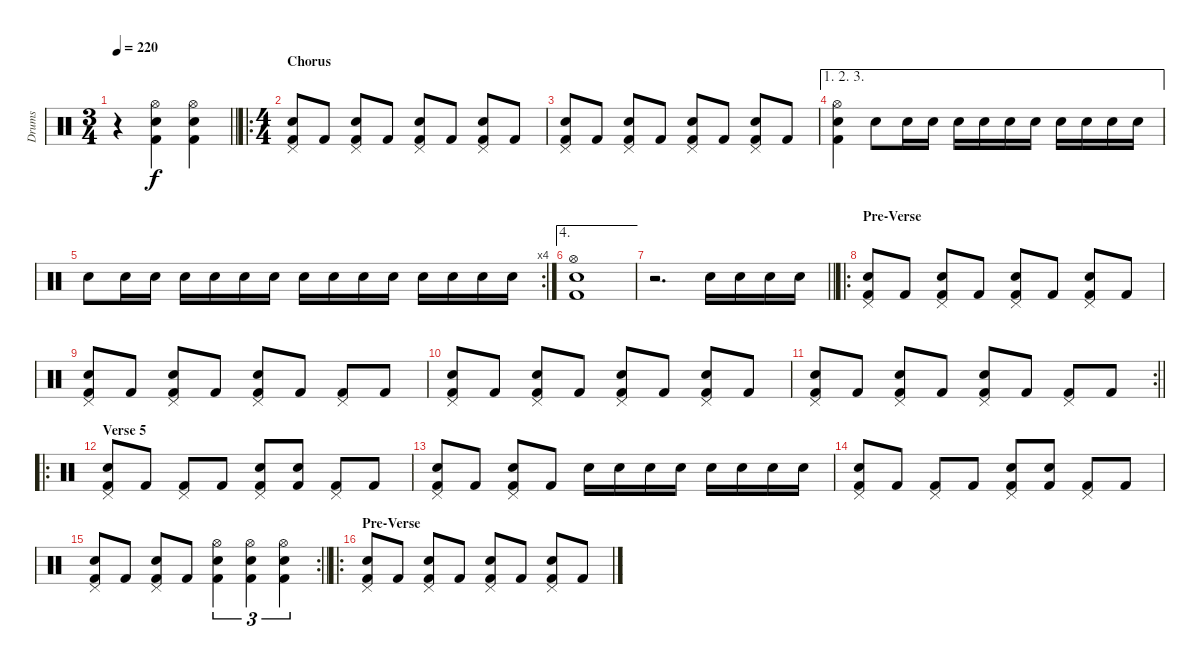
\track ("Drums" "Drums") {instrument percussion}
\staff {score}
\articulation defaults
\ts (3 4)
\tempo 220
\clef neutral
\barLineRight lightlight
\ks c
r.4{dy f} ("Hi-Hat (open)" "Snare (hit) 2" "Kick (hit) 2").4 ("Hi-Hat (open)" "Snare (hit) 2" "Kick (hit) 2").4 |
\ro
\ts (4 4)
\section ("" "Chorus")
("Pedal Hi-Hat (hit)" "Snare (hit) 2" "Kick (hit) 2").8 "Kick (hit) 2".8 ("Pedal Hi-Hat (hit)" "Snare (hit) 2" "Kick (hit) 2").8 "Kick (hit) 2".8 ("Pedal Hi-Hat (hit)" "Snare (hit) 2" "Kick (hit) 2").8 "Kick (hit) 2".8 ("Pedal Hi-Hat (hit)" "Snare (hit) 2" "Kick (hit) 2").8 "Kick (hit) 2".8 |
("Pedal Hi-Hat (hit)" "Snare (hit) 2" "Kick (hit) 2").8 "Kick (hit) 2".8 ("Pedal Hi-Hat (hit)" "Snare (hit) 2" "Kick (hit) 2").8 "Kick (hit) 2".8 ("Pedal Hi-Hat (hit)" "Snare (hit) 2" "Kick (hit) 2").8 "Kick (hit) 2".8 ("Pedal Hi-Hat (hit)" "Snare (hit) 2" "Kick (hit) 2").8 "Kick (hit) 2".8 |
\ae (1 2 3)
("Hi-Hat (open)" "Snare (hit) 2" "Kick (hit) 2").4 "Snare (hit) 2".8 "Snare (hit) 2".16 "Snare (hit) 2".16 "Snare (hit) 2".16 "Snare (hit) 2".16 "Snare (hit) 2".16 "Snare (hit) 2".16 "Snare (hit) 2".16 "Snare (hit) 2".16 "Snare (hit) 2".16 "Snare (hit) 2".16 |
\rc 4 "Snare (hit) 2".8 "Snare (hit) 2".16 "Snare (hit) 2".16 "Snare (hit) 2".16 "Snare (hit) 2".16 "Snare (hit) 2".16 "Snare (hit) 2".16 "Snare (hit) 2".16 "Snare (hit) 2".16 "Snare (hit) 2".16 "Snare (hit) 2".16 "Snare (hit) 2".16 "Snare (hit) 2".16 "Snare (hit) 2".16 "Snare (hit) 2".16
|
\ae 4
("Hi-Hat (open)" "Snare (hit) 2" "Kick (hit) 2").1 |
\barLineRight lightlight
r.2{d} "Snare (hit) 2".16 "Snare (hit) 2".16 "Snare (hit) 2".16 "Snare (hit) 2".16 |
\ro
\section ("" "Pre-Verse")
("Pedal Hi-Hat (hit)" "Snare (hit) 2" "Kick (hit) 2").8 "Kick (hit) 2".8 ("Pedal Hi-Hat (hit)" "Snare (hit) 2" "Kick (hit) 2").8 "Kick (hit) 2".8 ("Pedal Hi-Hat (hit)" "Snare (hit) 2" "Kick (hit) 2").8 "Kick (hit) 2".8 ("Pedal Hi-Hat (hit)" "Snare (hit) 2" "Kick (hit) 2").8 "Kick (hit) 2".8 |
("Pedal Hi-Hat (hit)" "Snare (hit) 2" "Kick (hit) 2").8 "Kick (hit) 2".8 ("Pedal Hi-Hat (hit)" "Snare (hit) 2" "Kick (hit) 2").8 "Kick (hit) 2".8 ("Pedal Hi-Hat (hit)" "Snare (hit) 2" "Kick (hit) 2").8 "Kick (hit) 2".8 ("Pedal Hi-Hat (hit)" "Kick (hit) 2").8 "Kick (hit) 2".8 |
("Pedal Hi-Hat (hit)" "Snare (hit) 2" "Kick (hit) 2").8 "Kick (hit) 2".8 ("Pedal Hi-Hat (hit)" "Snare (hit) 2" "Kick (hit) 2").8 "Kick (hit) 2".8 ("Pedal Hi-Hat (hit)" "Snare (hit) 2" "Kick (hit) 2").8 "Kick (hit) 2".8 ("Pedal Hi-Hat (hit)" "Snare (hit) 2" "Kick (hit) 2").8 "Kick (hit) 2".8 |
\rc 2
\barLineRight lightlight
("Pedal Hi-Hat (hit)" "Snare (hit) 2" "Kick (hit) 2").8 "Kick (hit) 2".8 ("Pedal Hi-Hat (hit)" "Snare (hit) 2" "Kick (hit) 2").8 "Kick (hit) 2".8 ("Pedal Hi-Hat (hit)" "Snare (hit) 2" "Kick (hit) 2").8 "Kick (hit) 2".8 ("Pedal Hi-Hat (hit)" "Kick (hit) 2").8 "Kick (hit) 2".8 |
\ro
\section ("" "Verse 5")
("Pedal Hi-Hat (hit)" "Snare (hit) 2" "Kick (hit) 2").8 "Kick (hit) 2".8 ("Pedal Hi-Hat (hit)" "Kick (hit) 2").8 "Kick (hit) 2".8 ("Pedal Hi-Hat (hit)" "Snare (hit) 2" "Kick (hit) 2").8 ("Snare (hit) 2" "Kick (hit) 2").8 ("Pedal Hi-Hat (hit)" "Kick (hit) 2").8 "Kick (hit) 2".8 |
("Pedal Hi-Hat (hit)" "Snare (hit) 2" "Kick (hit) 2").8 "Kick (hit) 2".8 ("Pedal Hi-Hat (hit)" "Snare (hit) 2" "Kick (hit) 2").8 "Kick (hit) 2".8 "Snare (hit) 2".16 "Snare (hit) 2".16 "Snare (hit) 2".16 "Snare (hit) 2".16 "Snare (hit) 2".16 "Snare (hit) 2".16 "Snare (hit) 2".16 "Snare (hit) 2".16 |
("Pedal Hi-Hat (hit)" "Snare (hit) 2" "Kick (hit) 2").8 "Kick (hit) 2".8 ("Pedal Hi-Hat (hit)" "Kick (hit) 2").8 "Kick (hit) 2".8 ("Pedal Hi-Hat (hit)" "Snare (hit) 2" "Kick (hit) 2").8 ("Snare (hit) 2" "Kick (hit) 2").8 ("Pedal Hi-Hat (hit)" "Kick (hit) 2").8 "Kick (hit) 2".8 |
\rc 2
\barLineRight lightlight
("Pedal Hi-Hat (hit)" "Snare (hit) 2" "Kick (hit) 2").8 "Kick (hit) 2".8 ("Pedal Hi-Hat (hit)" "Snare (hit) 2" "Kick (hit) 2").8 "Kick (hit) 2".8 ("Hi-Hat (open)" "Snare (hit) 2" "Kick (hit) 2").4{tu (3 2)} ("Hi-Hat (open)" "Snare (hit) 2" "Kick (hit) 2").4{tu (3 2)} ("Hi-Hat (open)" "Snare (hit) 2" "Kick (hit) 2").4{tu (3 2)} |
\ro
\section ("" "Pre-Verse")
("Pedal Hi-Hat (hit)" "Snare (hit) 2" "Kick (hit) 2").8 "Kick (hit) 2".8 ("Pedal Hi-Hat (hit)" "Snare (hit) 2" "Kick (hit) 2").8 "Kick (hit) 2".8 ("Pedal Hi-Hat (hit)" "Snare (hit) 2" "Kick (hit) 2").8 "Kick (hit) 2".8 ("Pedal Hi-Hat (hit)" "Snare (hit) 2" "Kick (hit) 2").8 "Kick (hit) 2".8
